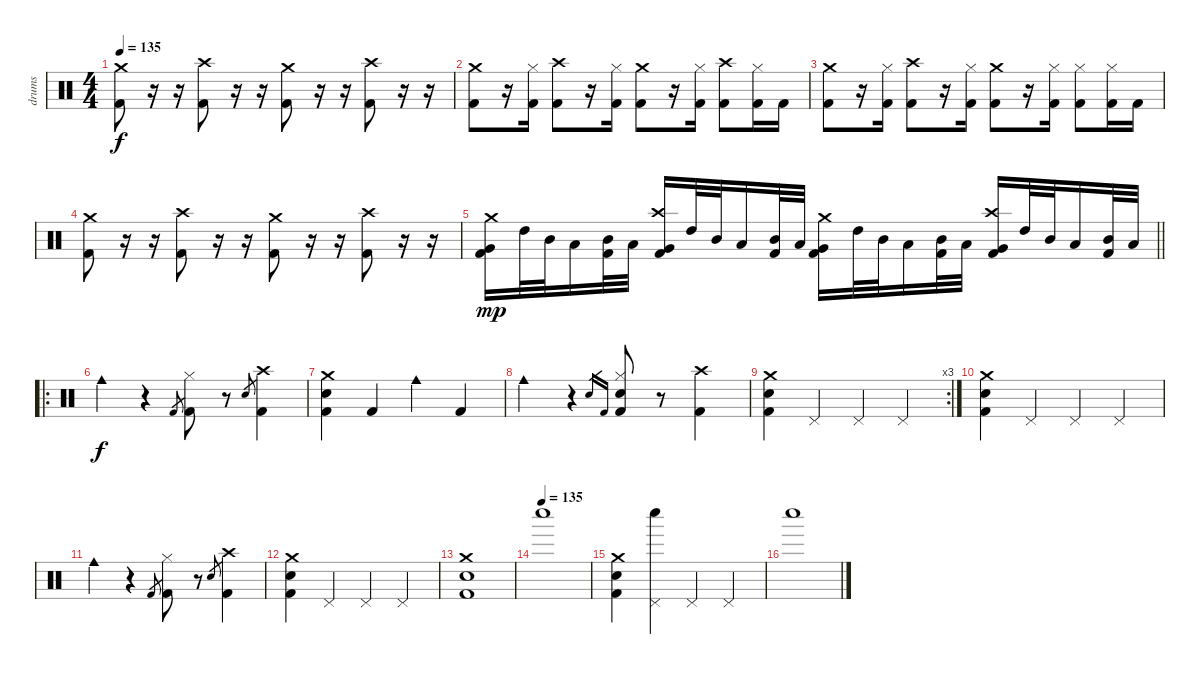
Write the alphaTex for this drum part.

\track ("drums" "drums") {instrument percussion}
\staff {score}
\articulation defaults
\ts (4 4)
\tempo 135
\clef neutral
\ks c
("Crash medium (hit)" "Kick (hit) 2").8{dy f} r.16 r.16 ("Crash high (hit)" "Kick (hit) 2").8 r.16 r.16 ("Crash medium (hit)" "Kick (hit) 2").8 r.16 r.16 ("Crash high (hit)" "Kick (hit) 2").8 r.16 r.16 |
("Crash medium (hit)" "Kick (hit) 2").8 r.16 ("Hi-Hat (closed)" "Kick (hit) 2").16 ("Crash high (hit)" "Kick (hit) 2").8 r.16 ("Hi-Hat (closed)" "Kick (hit) 2").16 ("Crash medium (hit)" "Kick (hit) 2").8 r.16 ("Hi-Hat (closed)" "Kick (hit) 2").16 ("Crash high (hit)" "Kick (hit) 2").8 ("Hi-Hat (closed)" "Kick (hit) 2").16 "Kick (hit) 2".16 |
("Crash medium (hit)" "Kick (hit) 2").8 r.16 ("Hi-Hat (closed)" "Kick (hit) 2").16 ("Crash high (hit)" "Kick (hit) 2").8 r.16 ("Hi-Hat (closed)" "Kick (hit) 2").16 ("Crash medium (hit)" "Kick (hit) 2").8 r.16 ("Hi-Hat (closed)" "Kick (hit) 2").16 ("Hi-Hat (closed)" "Kick (hit) 2").8 ("Hi-Hat (closed)" "Kick (hit) 2").16 "Kick (hit) 2".16 |
("Crash medium (hit)" "Kick (hit) 2").8 r.16 r.16 ("Crash high (hit)" "Kick (hit) 2").8 r.16 r.16 ("Crash medium (hit)" "Kick (hit) 2").8 r.16 r.16 ("Crash high (hit)" "Kick (hit) 2").8 r.16 r.16 |
\barLineRight lightlight
("Crash medium (hit)" "Very Low Tom (hit)" "Kick (hit) 2").16{dy mp} "High Tom (hit)".32 "Mid Tom (hit)".32 "Low Tom (hit)".16 ("Mid Tom (hit)" "Kick (hit) 2").32 "Low Tom (hit)".32 ("Crash high (hit)" "Very Low Tom (hit)" "Kick (hit) 2").16 "High Tom (hit)".32 "Mid Tom (hit)".32 "Low Tom (hit)".16 ("Mid Tom (hit)" "Kick (hit) 2").32 "Low Tom (hit)".32 ("Crash medium (hit)" "Very Low Tom (hit)" "Kick (hit) 2").16 "High Tom (hit)".32 "Mid Tom (hit)".32 "Low Tom (hit)".16 ("Mid Tom (hit)" "Kick (hit) 2").32 "Low Tom (hit)".32 ("Crash high (hit)" "Very Low Tom (hit)" "Kick (hit) 2").16 "High Tom (hit)".32 "Mid Tom (hit)".32 "Low Tom (hit)".16 ("Mid Tom (hit)" "Kick (hit) 2").32 "Low Tom (hit)".32 |
\ro "Cowbell medium (hit)".4{dy f}
r.4 "Kick (hit) 2".8{gr} ("Hi-Hat (closed)" "Kick (hit) 2").8 r.8 "Snare (hit) 2".8{gr} ("Crash high (hit)" "Kick (hit) 2").4 |
("Crash medium (hit)" "Snare (hit) 2" "Kick (hit) 2").4 "Kick (hit) 2".4 "Cowbell medium (hit)".4 "Kick (hit) 2".4 |
"Cowbell medium (hit)".4 r.4 "Snare (hit) 2".16{gr} "Kick (hit) 2".16{gr} ("Hi-Hat (closed)" "Snare (hit) 2" "Kick (hit) 2").8 r.8 ("Crash high (hit)" "Kick (hit) 2").4 |
\rc 3
("Crash medium (hit)" "Snare (hit) 2" "Kick (hit) 2").4 "Pedal Hi-Hat (hit)".4 "Pedal Hi-Hat (hit)".4 "Pedal Hi-Hat (hit)".4 |
("Crash medium (hit)" "Snare (hit) 2" "Kick (hit) 2").4 "Pedal Hi-Hat (hit)".4 "Pedal Hi-Hat (hit)".4 "Pedal Hi-Hat (hit)".4 |
"Cowbell medium (hit)".4 r.4 "Kick (hit) 2".8{gr} ("Hi-Hat (closed)" "Kick (hit) 2").8 r.8 "Snare (hit) 2".8{gr} ("Crash high (hit)" "Kick (hit) 2").4 |
("Crash medium (hit)" "Snare (hit) 2" "Kick (hit) 2").4 "Pedal Hi-Hat (hit)".4 "Pedal Hi-Hat (hit)".4 "Pedal Hi-Hat (hit)".4 |
("Crash medium (hit)" "Snare (hit) 2" "Kick (hit) 2").1 |
\tempo (135)
"Whistle low (hit)".1{volume 14} |
("Crash medium (hit)" "Snare (hit) 2" "Kick (hit) 2").4 ("Pedal Hi-Hat (hit)" "Whistle low (hit)").4 "Pedal Hi-Hat (hit)".4 "Pedal Hi-Hat (hit)".4 |
"Whistle low (hit)".1
